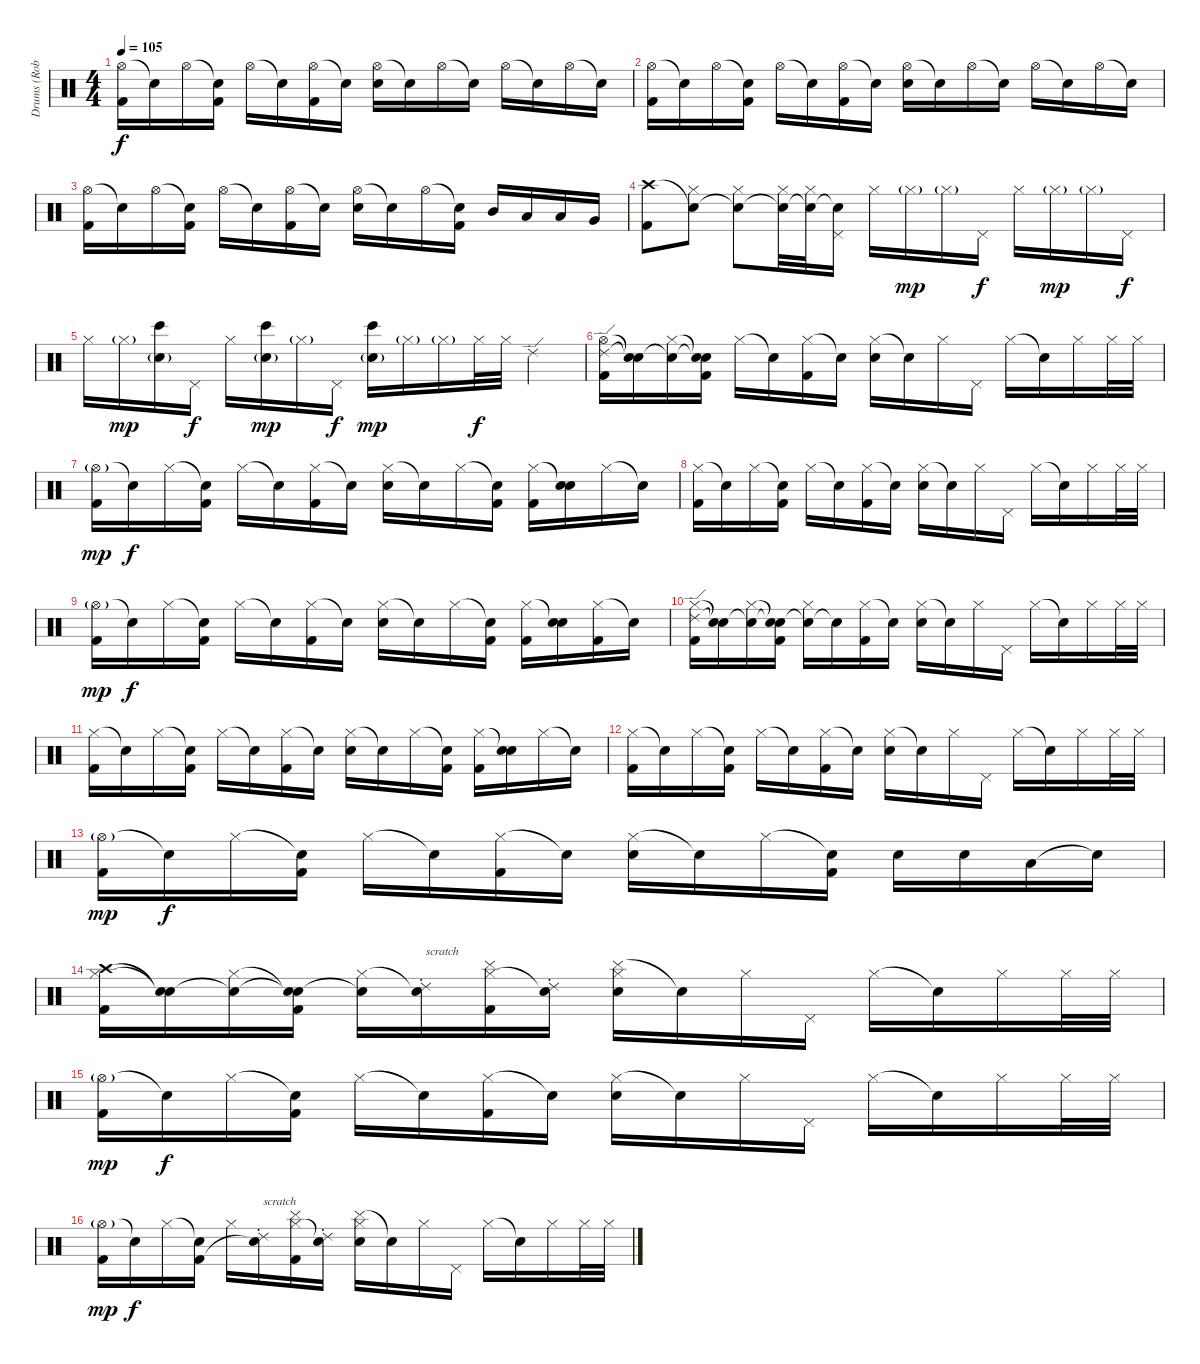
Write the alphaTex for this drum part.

\track ("Drums (Rob Bourdon)" "Drums (Rob") {instrument percussion}
\staff {score}
\articulation defaults
\ts (4 4)
\tempo 105
\clef neutral
\ks c
("Hi-Hat (open)" "Kick (hit) 2").16{dy f} "Snare (hit)"{t}.16 "Hi-Hat (open)".16 ("Snare (hit)"{t} "Kick (hit) 2").16 "Hi-Hat (open)".16 "Snare (hit)"{t}.16 ("Hi-Hat (open)" "Kick (hit) 2").16 "Snare (hit)"{t}.16 ("Hi-Hat (open)" "Electric Snare (hit)").16 "Snare (hit)"{t}.16 "Hi-Hat (open)".16 "Snare (hit)"{t}.16 "Hi-Hat (open)".16 "Snare (hit)"{t}.16 "Hi-Hat (open)".16 "Snare (hit)"{t}.16 |
("Hi-Hat (open)" "Kick (hit) 2").16 "Snare (hit)"{t}.16 "Hi-Hat (open)".16 ("Snare (hit)"{t} "Kick (hit) 2").16 "Hi-Hat (open)".16 "Snare (hit)"{t}.16 ("Hi-Hat (open)" "Kick (hit) 2").16 "Snare (hit)"{t}.16 ("Hi-Hat (open)" "Electric Snare (hit)").16 "Snare (hit)"{t}.16 "Hi-Hat (open)".16 "Snare (hit)"{t}.16 "Hi-Hat (open)".16 "Snare (hit)"{t}.16 "Hi-Hat (open)".16 "Snare (hit)"{t}.16 |
("Hi-Hat (open)" "Kick (hit) 2").16 "Snare (hit)"{t}.16 "Hi-Hat (open)".16 ("Snare (hit)"{t} "Kick (hit) 2").16 "Hi-Hat (open)".16 "Snare (hit)"{t}.16 ("Hi-Hat (open)" "Kick (hit) 2").16 "Snare (hit)"{t}.16 ("Hi-Hat (open)" "Electric Snare (hit)").16 "Snare (hit)"{t}.16 "Hi-Hat (open)".16 ("Snare (hit)"{t} "Kick (hit) 2").16 "Mid Tom (hit)".16 "Low Tom (hit)".16 "Low Tom (hit)".16 "Very Low Tom (hit)".16 |
("Crash high (hit)" "Kick (hit) 2").8{volume 12} ("Snare (hit)"{t} "Hi-Hat (closed)").8 ("Snare (hit)"{t} "Hi-Hat (closed)").8 ("Snare (hit)"{t} "Hi-Hat (closed)").32 ("Snare (hit)"{t} "Hi-Hat (closed)").32 ("Snare (hit)"{t} "Pedal Hi-Hat (hit)").16 "Hi-Hat (closed)".16 "Hi-Hat (closed)"{g}.16{dy mp} "Hi-Hat (closed)"{g}.16 "Pedal Hi-Hat (hit)".16{dy f} "Hi-Hat (closed)".16 "Hi-Hat (closed)"{g}.16{dy mp} "Hi-Hat (closed)"{g}.16 "Pedal Hi-Hat (hit)".16{dy f} |
"Hi-Hat (closed)".16 "Hi-Hat (closed)"{g}.16{dy mp} ("Electric Snare (hit)"{g} "Bongo High (hit)").16 "Pedal Hi-Hat (hit)".16{dy f} "Hi-Hat (closed)".16 ("Electric Snare (hit)"{g} "Bongo High (hit)").16{dy mp} "Hi-Hat (closed)"{g}.16 "Pedal Hi-Hat (hit)".16{dy f} ("Electric Snare (hit)"{g} "Bongo High (hit)").16{dy mp} "Hi-Hat (closed)"{g}.16 "Hi-Hat (closed)"{g}.16 "Hi-Hat (closed)".32{dy f} "Hi-Hat (closed)".32 "Ride (edge) 2".4 |
("Ride (edge) 2" "Hi-Hat (open)" "Kick (hit) 2").16 ("Snare (hit)"{t} "Snare (hit)"{t}).16 ("Snare (hit)"{t} "Hi-Hat (closed)").16 ("Snare (hit)"{t} "Snare (hit)"{t} "Kick (hit) 2").16 "Hi-Hat (closed)".16 "Snare (hit)"{t}.16 ("Hi-Hat (closed)" "Kick (hit) 2").16 "Snare (hit)"{t}.16 ("Hi-Hat (closed)" "Electric Snare (hit)").16 "Snare (hit)"{t}.16 "Hi-Hat (closed)".16 "Pedal Hi-Hat (hit)".16 "Hi-Hat (closed)".16 "Snare (hit)"{t}.16 "Hi-Hat (closed)".16 "Hi-Hat (closed)".32 "Hi-Hat (closed)".32 |
("Hi-Hat (open)"{g} "Kick (hit) 2").16{dy mp} "Snare (hit)"{t}.16{dy f} "Hi-Hat (closed)".16 ("Snare (hit)"{t} "Kick (hit) 2").16 "Hi-Hat (closed)".16 "Snare (hit)"{t}.16 ("Hi-Hat (closed)" "Kick (hit) 2").16 "Snare (hit)"{t}.16 ("Hi-Hat (closed)" "Electric Snare (hit)").16 "Snare (hit)"{t}.16 "Hi-Hat (closed)".16 ("Snare (hit)"{t} "Kick (hit) 2").16 ("Hi-Hat (closed)" "Kick (hit) 2").16 ("Snare (hit)"{t} "Electric Snare (hit)").16 "Hi-Hat (closed)".16 "Snare (hit)"{t}.16 |
("Hi-Hat (closed)" "Kick (hit) 2").16 "Snare (hit)"{t}.16 "Hi-Hat (closed)".16 ("Snare (hit)"{t} "Kick (hit) 2").16 "Hi-Hat (closed)".16 "Snare (hit)"{t}.16 ("Hi-Hat (closed)" "Kick (hit) 2").16 "Snare (hit)"{t}.16 ("Hi-Hat (closed)" "Electric Snare (hit)").16 "Snare (hit)"{t}.16 "Hi-Hat (closed)".16 "Pedal Hi-Hat (hit)".16 "Hi-Hat (closed)".16 "Snare (hit)"{t}.16 "Hi-Hat (closed)".16 "Hi-Hat (closed)".32 "Hi-Hat (closed)".32 |
("Hi-Hat (open)"{g} "Kick (hit) 2").16{dy mp} "Snare (hit)"{t}.16{dy f} "Hi-Hat (closed)".16 ("Snare (hit)"{t} "Kick (hit) 2").16 "Hi-Hat (closed)".16 "Snare (hit)"{t}.16 ("Hi-Hat (closed)" "Kick (hit) 2").16 "Snare (hit)"{t}.16 ("Hi-Hat (closed)" "Electric Snare (hit)").16 "Snare (hit)"{t}.16 "Hi-Hat (closed)".16 ("Snare (hit)"{t} "Kick (hit) 2").16 ("Hi-Hat (closed)" "Kick (hit) 2").16 ("Snare (hit)"{t} "Electric Snare (hit)").16 ("Hi-Hat (closed)" "Kick (hit) 2").16 "Snare (hit)"{t}.16 |
("Ride (edge) 2" "Hi-Hat (closed)" "Kick (hit) 2").16 ("Snare (hit)"{t} "Snare (hit)"{t}).16 ("Snare (hit)"{t} "Hi-Hat (closed)").16 ("Snare (hit)"{t} "Snare (hit)"{t} "Kick (hit) 2").16 ("Snare (hit)"{t} "Hi-Hat (closed)").16 "Snare (hit)"{t}.16 ("Hi-Hat (closed)" "Kick (hit) 2").16 "Snare (hit)"{t}.16 ("Hi-Hat (closed)" "Electric Snare (hit)").16 "Snare (hit)"{t}.16 "Hi-Hat (closed)".16 "Pedal Hi-Hat (hit)".16 "Hi-Hat (closed)".16 "Snare (hit)"{t}.16 "Hi-Hat (closed)".16 "Hi-Hat (closed)".32 "Hi-Hat (closed)".32 |
("Hi-Hat (closed)" "Kick (hit) 2").16 "Snare (hit)"{t}.16 "Hi-Hat (closed)".16 ("Snare (hit)"{t} "Kick (hit) 2").16 "Hi-Hat (closed)".16 "Snare (hit)"{t}.16 ("Hi-Hat (closed)" "Kick (hit) 2").16 "Snare (hit)"{t}.16 ("Hi-Hat (closed)" "Electric Snare (hit)").16 "Snare (hit)"{t}.16 "Hi-Hat (closed)".16 ("Snare (hit)"{t} "Kick (hit) 2").16 ("Hi-Hat (closed)" "Kick (hit) 2").16 ("Snare (hit)"{t} "Electric Snare (hit)").16 "Hi-Hat (closed)".16 "Snare (hit)"{t}.16 |
("Hi-Hat (closed)" "Kick (hit) 2").16 "Snare (hit)"{t}.16 "Hi-Hat (closed)".16 ("Snare (hit)"{t} "Kick (hit) 2").16 "Hi-Hat (closed)".16 "Snare (hit)"{t}.16 ("Hi-Hat (closed)" "Kick (hit) 2").16 "Snare (hit)"{t}.16 ("Hi-Hat (closed)" "Electric Snare (hit)").16 "Snare (hit)"{t}.16 "Hi-Hat (closed)".16 "Pedal Hi-Hat (hit)".16 "Hi-Hat (closed)".16 "Snare (hit)"{t}.16 "Hi-Hat (closed)".16 "Hi-Hat (closed)".32 "Hi-Hat (closed)".32 |
("Hi-Hat (open)"{g} "Kick (hit) 2").16{dy mp} "Snare (hit)"{t}.16{dy f} "Hi-Hat (closed)".16 ("Snare (hit)"{t} "Kick (hit) 2").16 "Hi-Hat (closed)".16 "Snare (hit)"{t}.16 ("Hi-Hat (closed)" "Kick (hit) 2").16 "Snare (hit)"{t}.16 ("Hi-Hat (closed)" "Electric Snare (hit)").16 "Snare (hit)"{t}.16 "Hi-Hat (closed)".16 ("Snare (hit)"{t} "Kick (hit) 2").16 "Electric Snare (hit)".16 "Electric Snare (hit)".16 "Low Tom (hit)".16 "Snare (hit)"{t}.16 |
("Crash high (hit)" "Hi-Hat (closed)" "Kick (hit) 2").16 ("Snare (hit)"{t} "Snare (hit)"{t}).16 ("Snare (hit)"{t} "Hi-Hat (closed)").16 ("Snare (hit)"{t} "Snare (hit)"{t} "Kick (hit) 2").16 ("Snare (hit)"{t} "Hi-Hat (closed)").16 ("Ride (choke) 2" "Snare (hit)"{t}).16{txt "scratch"} ("Cymbal (hit)" "Hi-Hat (closed)" "Kick (hit) 2").16 ("Ride (choke) 2" "Snare (hit)"{t}).16 ("Cymbal (hit)" "Hi-Hat (closed)" "Electric Snare (hit)").16 "Snare (hit)"{t}.16 "Hi-Hat (closed)".16 "Pedal Hi-Hat (hit)".16 "Hi-Hat (closed)".16 "Snare (hit)"{t}.16 "Hi-Hat (closed)".16 "Hi-Hat (closed)".32 "Hi-Hat (closed)".32 |
("Hi-Hat (open)"{g} "Kick (hit) 2").16{dy mp} "Snare (hit)"{t}.16{dy f} "Hi-Hat (closed)".16 ("Snare (hit)"{t} "Kick (hit) 2").16 "Hi-Hat (closed)".16 "Snare (hit)"{t}.16 ("Hi-Hat (closed)" "Kick (hit) 2").16 "Snare (hit)"{t}.16 ("Hi-Hat (closed)" "Electric Snare (hit)").16 "Snare (hit)"{t}.16 "Hi-Hat (closed)".16 "Pedal Hi-Hat (hit)".16 "Hi-Hat (closed)".16 "Snare (hit)"{t}.16 "Hi-Hat (closed)".16 "Hi-Hat (closed)".32 "Hi-Hat (closed)".32 |
("Hi-Hat (open)"{g} "Kick (hit) 2").16{dy mp} "Snare (hit)"{t}.16{dy f} "Hi-Hat (closed)".16 ("Snare (hit)"{t} "Kick (hit) 2").16 "Hi-Hat (closed)".16 ("Ride (choke) 2" "Snare (hit)"{t}).16{txt "scratch"} ("Cymbal (hit)" "Hi-Hat (closed)" "Kick (hit) 2").16 ("Ride (choke) 2" "Snare (hit)"{t}).16 ("Cymbal (hit)" "Hi-Hat (closed)" "Electric Snare (hit)").16 "Snare (hit)"{t}.16 "Hi-Hat (closed)".16 "Pedal Hi-Hat (hit)".16 "Hi-Hat (closed)".16 "Snare (hit)"{t}.16 "Hi-Hat (closed)".16 "Hi-Hat (closed)".32 "Hi-Hat (closed)".32
